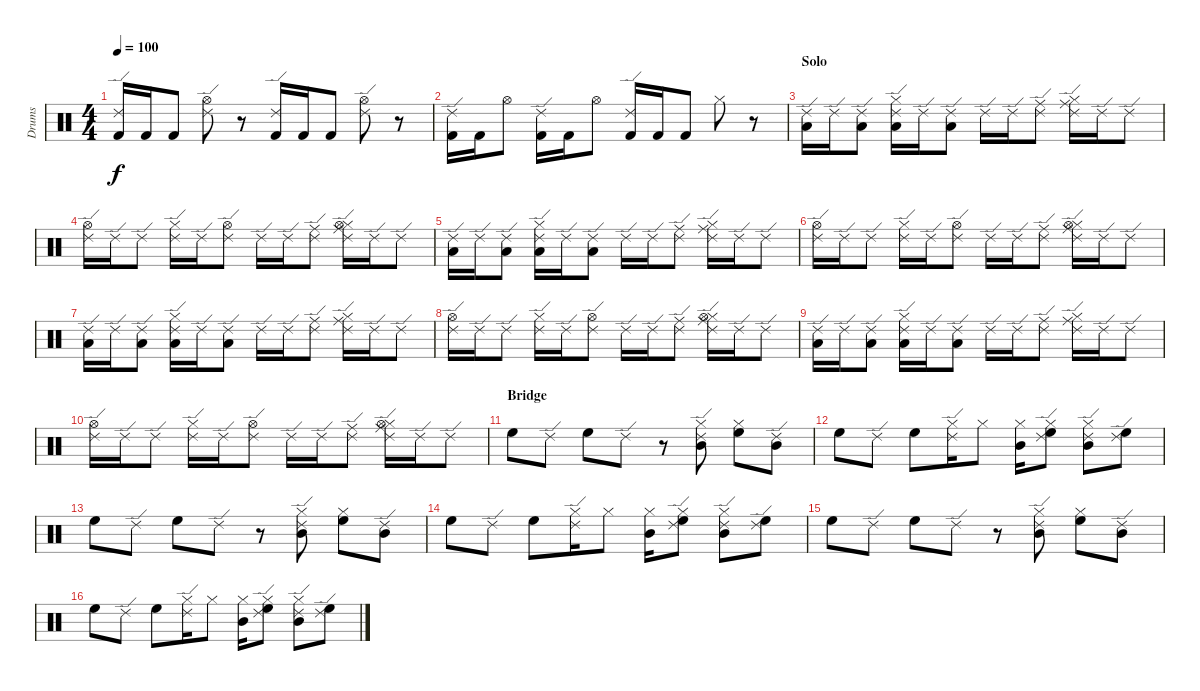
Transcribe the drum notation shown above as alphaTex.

\track ("Drums" "Drums") {instrument percussion}
\staff {score}
\articulation defaults
\ts (4 4)
\tempo 100
\clef neutral
\ks c
("Ride (edge) 2" "Kick (hit) 2").16{dy f} "Kick (hit) 2".16 "Kick (hit) 2".8 ("Ride (edge) 2" "Hi-Hat (open)").8 r.8 ("Ride (edge) 2" "Kick (hit) 2").16 "Kick (hit) 2".16 "Kick (hit) 2".8 ("Ride (edge) 2" "Hi-Hat (open)").8 r.8 |
("Ride (edge) 2" "Kick (hit) 2").16 "Kick (hit) 2".16 "Hi-Hat (open)".8 ("Ride (edge) 2" "Kick (hit) 2").16 "Kick (hit) 2".16 "Hi-Hat (open)".8 ("Ride (edge) 2" "Kick (hit) 2").16 "Kick (hit) 2".16 "Kick (hit) 2".8 "Hi-Hat (closed)".8 r.8 |
\section ("" "Solo")
("Ride (edge) 2" "Low Tom (hit)").16 "Ride (edge) 2".16 ("Ride (edge) 2" "Low Tom (hit)").8 ("Ride (edge) 2" "Hi-Hat (closed)" "Low Tom (hit)").16 "Ride (edge) 2".16 ("Ride (edge) 2" "Low Tom (hit)").8 "Ride (edge) 2".16 "Ride (edge) 2".16 ("Ride (edge) 2" "Ride (middle)").8 ("Ride (edge) 2" "Hi-Hat (closed)" "Ride (middle)").16 "Ride (edge) 2".16 "Ride (edge) 2".8 |
("Ride (edge) 2" "Hi-Hat (open)").16 "Ride (edge) 2".16 "Ride (edge) 2".8 ("Ride (edge) 2" "Hi-Hat (closed)").16 "Ride (edge) 2".16 ("Ride (edge) 2" "Hi-Hat (open)").8 "Ride (edge) 2".16 "Ride (edge) 2".16 ("Ride (edge) 2" "Ride (middle)").8 ("Ride (edge) 2" "Hi-Hat (closed)" "Ride (middle)" "Hi-Hat (open)").16 "Ride (edge) 2".16 "Ride (edge) 2".8 |
("Ride (edge) 2" "Low Tom (hit)").16 "Ride (edge) 2".16 ("Ride (edge) 2" "Low Tom (hit)").8 ("Ride (edge) 2" "Hi-Hat (closed)" "Low Tom (hit)").16 "Ride (edge) 2".16 ("Ride (edge) 2" "Low Tom (hit)").8 "Ride (edge) 2".16 "Ride (edge) 2".16 ("Ride (edge) 2" "Ride (middle)").8 ("Ride (edge) 2" "Hi-Hat (closed)" "Ride (middle)").16 "Ride (edge) 2".16 "Ride (edge) 2".8 |
("Ride (edge) 2" "Hi-Hat (open)").16 "Ride (edge) 2".16 "Ride (edge) 2".8 ("Ride (edge) 2" "Hi-Hat (closed)").16 "Ride (edge) 2".16 ("Ride (edge) 2" "Hi-Hat (open)").8 "Ride (edge) 2".16 "Ride (edge) 2".16 ("Ride (edge) 2" "Ride (middle)").8 ("Ride (edge) 2" "Hi-Hat (closed)" "Ride (middle)" "Hi-Hat (open)").16 "Ride (edge) 2".16 "Ride (edge) 2".8 |
("Ride (edge) 2" "Low Tom (hit)").16 "Ride (edge) 2".16 ("Ride (edge) 2" "Low Tom (hit)").8 ("Ride (edge) 2" "Hi-Hat (closed)" "Low Tom (hit)").16 "Ride (edge) 2".16 ("Ride (edge) 2" "Low Tom (hit)").8 "Ride (edge) 2".16 "Ride (edge) 2".16 ("Ride (edge) 2" "Ride (middle)").8 ("Ride (edge) 2" "Hi-Hat (closed)" "Ride (middle)").16 "Ride (edge) 2".16 "Ride (edge) 2".8 |
("Ride (edge) 2" "Hi-Hat (open)").16 "Ride (edge) 2".16 "Ride (edge) 2".8 ("Ride (edge) 2" "Hi-Hat (closed)").16 "Ride (edge) 2".16 ("Ride (edge) 2" "Hi-Hat (open)").8 "Ride (edge) 2".16 "Ride (edge) 2".16 ("Ride (edge) 2" "Ride (middle)").8 ("Ride (edge) 2" "Hi-Hat (closed)" "Ride (middle)" "Hi-Hat (open)").16 "Ride (edge) 2".16 "Ride (edge) 2".8 |
("Ride (edge) 2" "Low Tom (hit)").16 "Ride (edge) 2".16 ("Ride (edge) 2" "Low Tom (hit)").8 ("Ride (edge) 2" "Hi-Hat (closed)" "Low Tom (hit)").16 "Ride (edge) 2".16 ("Ride (edge) 2" "Low Tom (hit)").8 "Ride (edge) 2".16 "Ride (edge) 2".16 ("Ride (edge) 2" "Ride (middle)").8 ("Ride (edge) 2" "Hi-Hat (closed)" "Ride (middle)").16 "Ride (edge) 2".16 "Ride (edge) 2".8 |
("Ride (edge) 2" "Hi-Hat (open)").16 "Ride (edge) 2".16 "Ride (edge) 2".8 ("Ride (edge) 2" "Hi-Hat (closed)").16 "Ride (edge) 2".16 ("Ride (edge) 2" "Hi-Hat (open)").8 "Ride (edge) 2".16 "Ride (edge) 2".16 ("Ride (edge) 2" "Ride (middle)").8 ("Ride (edge) 2" "Hi-Hat (closed)" "Ride (middle)" "Hi-Hat (open)").16 "Ride (edge) 2".16 "Ride (edge) 2".8 |
\section ("" "Bridge")
"High Floor Tom (hit)".8 "Ride (edge) 2".8 "High Floor Tom (hit)".8 "Ride (edge) 2".8 r.8 ("Ride (edge) 2" "Hi-Hat (closed)" "Mid Tom (hit)").8 ("Hi-Hat (closed)" "High Floor Tom (hit)").8 ("Ride (edge) 2" "Mid Tom (hit)").8 |
"High Floor Tom (hit)".8 "Ride (edge) 2".8 "High Floor Tom (hit)".8 ("Ride (edge) 2" "Hi-Hat (closed)").16 "Hi-Hat (closed)".8 ("Hi-Hat (closed)" "Mid Tom (hit)").16 ("Ride (edge) 2" "Hi-Hat (closed)" "High Floor Tom (hit)").8 ("Ride (edge) 2" "Hi-Hat (closed)" "Mid Tom (hit)").8 ("Ride (edge) 2" "High Floor Tom (hit)").8 |
"High Floor Tom (hit)".8 "Ride (edge) 2".8 "High Floor Tom (hit)".8 "Ride (edge) 2".8 r.8 ("Ride (edge) 2" "Hi-Hat (closed)" "Mid Tom (hit)").8 ("Hi-Hat (closed)" "High Floor Tom (hit)").8 ("Ride (edge) 2" "Mid Tom (hit)").8 |
"High Floor Tom (hit)".8 "Ride (edge) 2".8 "High Floor Tom (hit)".8 ("Ride (edge) 2" "Hi-Hat (closed)").16 "Hi-Hat (closed)".8 ("Hi-Hat (closed)" "Mid Tom (hit)").16 ("Ride (edge) 2" "Hi-Hat (closed)" "High Floor Tom (hit)").8 ("Ride (edge) 2" "Hi-Hat (closed)" "Mid Tom (hit)").8 ("Ride (edge) 2" "High Floor Tom (hit)").8 |
"High Floor Tom (hit)".8 "Ride (edge) 2".8 "High Floor Tom (hit)".8 "Ride (edge) 2".8 r.8 ("Ride (edge) 2" "Hi-Hat (closed)" "Mid Tom (hit)").8 ("Hi-Hat (closed)" "High Floor Tom (hit)").8 ("Ride (edge) 2" "Mid Tom (hit)").8 |
"High Floor Tom (hit)".8 "Ride (edge) 2".8 "High Floor Tom (hit)".8 ("Ride (edge) 2" "Hi-Hat (closed)").16 "Hi-Hat (closed)".8 ("Hi-Hat (closed)" "Mid Tom (hit)").16 ("Ride (edge) 2" "Hi-Hat (closed)" "High Floor Tom (hit)").8 ("Ride (edge) 2" "Hi-Hat (closed)" "Mid Tom (hit)").8 ("Ride (edge) 2" "High Floor Tom (hit)").8
